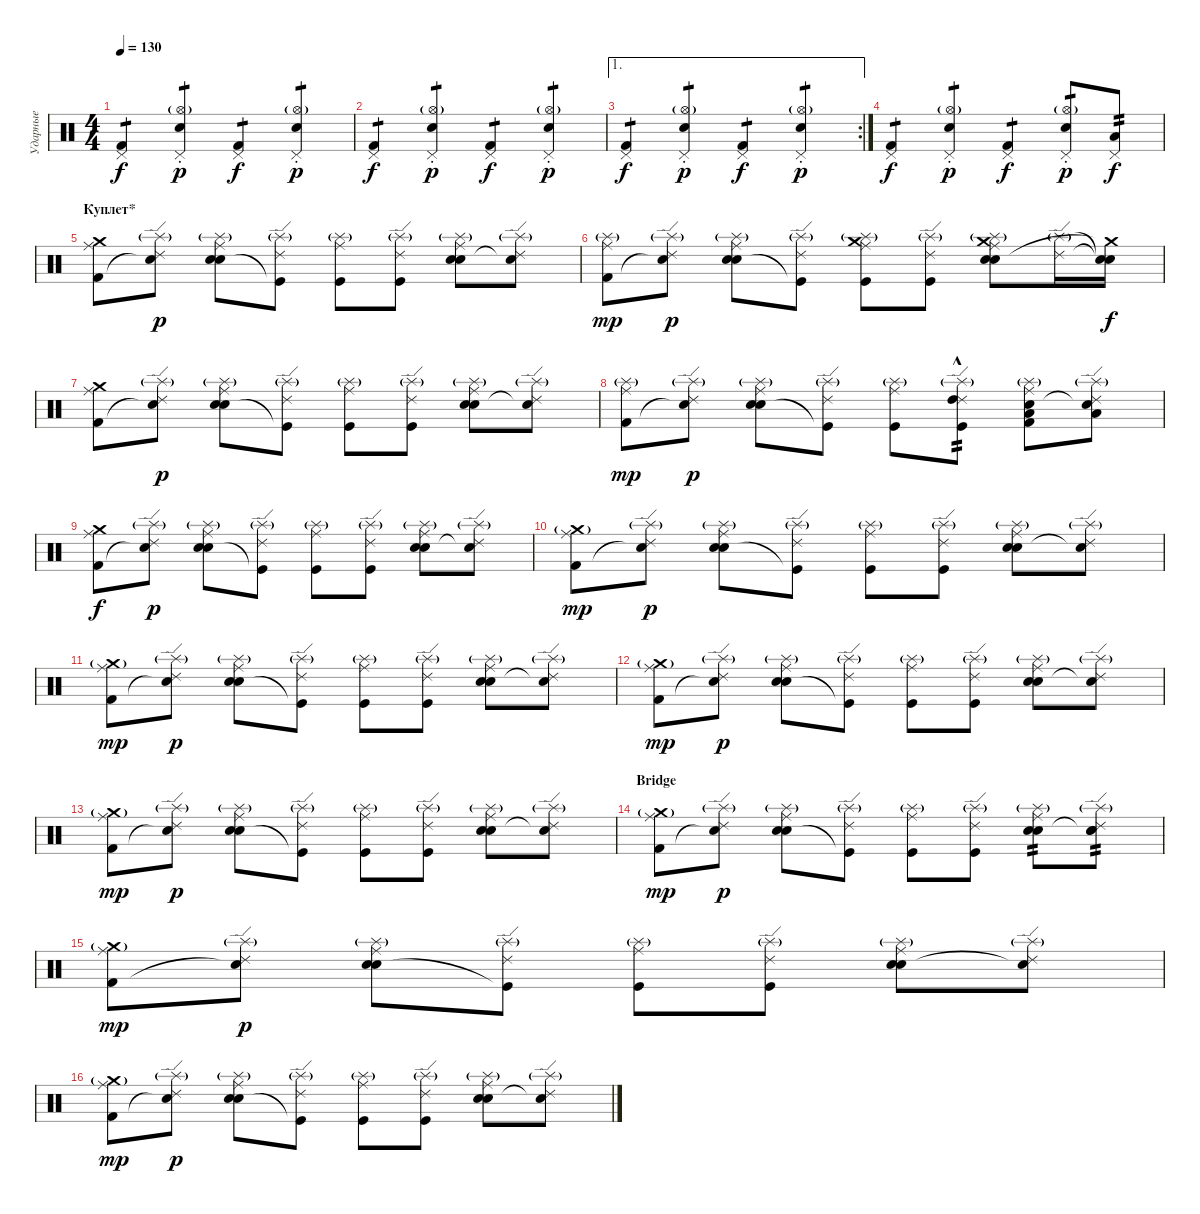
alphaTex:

\track ("Ударные" "Ударные") {instrument percussion}
\staff {score}
\articulation defaults
\ts (4 4)
\tempo 130
\clef neutral
\ks c
("Pedal Hi-Hat (hit)" "Kick (hit) 2").4{tp 1 dy f} ("Pedal Hi-Hat (hit)" "Hi-Hat (open)"{g st} "Snare (hit) 2").4{tp 1 dy p} ("Pedal Hi-Hat (hit)" "Kick (hit) 2").4{tp 1 dy f} ("Pedal Hi-Hat (hit)" "Hi-Hat (open)"{g st} "Snare (hit) 2").4{tp 1 dy p} |
("Pedal Hi-Hat (hit)" "Kick (hit) 2").4{tp 1 dy f} ("Pedal Hi-Hat (hit)" "Hi-Hat (open)"{g st} "Snare (hit) 2").4{tp 1 dy p} ("Pedal Hi-Hat (hit)" "Kick (hit) 2").4{tp 1 dy f} ("Pedal Hi-Hat (hit)" "Hi-Hat (open)"{g st} "Snare (hit) 2").4{tp 1 dy p} |
\ae 1
\rc 2
("Pedal Hi-Hat (hit)" "Kick (hit) 2").4{tp 1 dy f} ("Pedal Hi-Hat (hit)" "Hi-Hat (open)"{g st} "Snare (hit) 2").4{tp 1 dy p} ("Pedal Hi-Hat (hit)" "Kick (hit) 2").4{tp 1 dy f} ("Pedal Hi-Hat (hit)" "Hi-Hat (open)"{g st} "Snare (hit) 2").4{tp 1 dy p} |
("Pedal Hi-Hat (hit)" "Kick (hit) 2").4{tp 1 dy f} ("Pedal Hi-Hat (hit)" "Hi-Hat (open)"{g st} "Snare (hit) 2").4{tp 1 dy p} ("Pedal Hi-Hat (hit)" "Kick (hit) 2").4{tp 1 dy f} ("Pedal Hi-Hat (hit)" "Hi-Hat (open)"{g st} "Snare (hit) 2").8{tp 1 dy p} ("Pedal Hi-Hat (hit)" "Low Tom (hit)").8{tp 2 dy f} |
\section ("" "Куплет*")
("Crash medium (hit)" "Ride (middle)" "Kick (hit) 2").8 ("Splash (hit)"{g} "Ride (edge) 2" "Snare (hit)"{t}).8{dy p} ("Splash (hit)"{g} "Ride (middle)" "Snare (hit) 2" "Electric Snare (hit)").8 ("Splash (hit)"{g} "Ride (edge) 2" "Kick (hit)"{t}).8 ("Splash (hit)"{g} "Ride (middle)" "Kick (hit)").8 ("Splash (hit)"{g} "Ride (edge) 2" "Kick (hit)").8 ("Splash (hit)"{g} "Ride (middle)" "Snare (hit) 2" "Electric Snare (hit)").8 ("Splash (hit)"{g} "Ride (edge) 2" "Snare (hit)"{t}).8 |
("Splash (hit)"{g} "Ride (middle)" "Kick (hit) 2").8{dy mp} ("Splash (hit)"{g} "Ride (edge) 2" "Snare (hit)"{t}).8{dy p} ("Splash (hit)"{g} "Ride (middle)" "Snare (hit) 2" "Electric Snare (hit)").8 ("Splash (hit)"{g} "Ride (edge) 2" "Kick (hit)"{t}).8 ("Splash (hit)"{g} "Ride (middle)" "Kick (hit)" "Crash medium (hit)").8 ("Splash (hit)"{g} "Ride (edge) 2" "Kick (hit)").8 ("Splash (hit)"{g} "Ride (middle)" "Snare (hit) 2" "Crash medium (hit)" "Electric Snare (hit)").8 ("Splash (hit)"{g} "Ride (edge) 2").16 ("Snare (hit)"{t} "Snare (hit)"{t} "Crash medium (hit)"{t}).16{dy f} |
("Crash medium (hit)" "Ride (middle)" "Kick (hit) 2").8 ("Splash (hit)"{g} "Ride (edge) 2" "Snare (hit)"{t}).8{dy p} ("Splash (hit)"{g} "Ride (middle)" "Snare (hit) 2" "Electric Snare (hit)").8 ("Splash (hit)"{g} "Ride (edge) 2" "Kick (hit)"{t}).8 ("Splash (hit)"{g} "Ride (middle)" "Kick (hit)").8 ("Splash (hit)"{g} "Ride (edge) 2" "Kick (hit)").8 ("Splash (hit)"{g} "Ride (middle)" "Snare (hit) 2" "Electric Snare (hit)").8 ("Splash (hit)"{g} "Ride (edge) 2" "Snare (hit)"{t}).8 |
("Splash (hit)"{g} "Ride (middle)" "Kick (hit) 2").8{dy mp} ("Splash (hit)"{g} "Ride (edge) 2" "Snare (hit)"{t}).8{dy p} ("Splash (hit)"{g} "Ride (middle)" "Snare (hit) 2" "Electric Snare (hit)").8 ("Splash (hit)"{g} "Ride (edge) 2" "Kick (hit)"{t}).8 ("Splash (hit)"{g} "Ride (middle)" "Kick (hit)").8 ("Splash (hit)"{g} "Ride (edge) 2" "Kick (hit)" "High Tom (hit)"{hac}).8{tp 2} ("Splash (hit)"{g} "Ride (middle)" "Snare (hit) 2" "Low Tom (hit)" "Kick (hit) 2").8 ("Splash (hit)"{g} "Ride (edge) 2" "Snare (hit)"{t} "Low Tom (hit)").8 |
("Crash medium (hit)" "Ride (middle)" "Kick (hit) 2").8{dy f} ("Splash (hit)"{g} "Ride (edge) 2" "Snare (hit)"{t}).8{dy p} ("Splash (hit)"{g} "Ride (middle)" "Snare (hit) 2" "Electric Snare (hit)").8 ("Splash (hit)"{g} "Ride (edge) 2" "Kick (hit)"{t}).8 ("Splash (hit)"{g} "Ride (middle)" "Kick (hit)").8 ("Splash (hit)"{g} "Ride (edge) 2" "Kick (hit)").8 ("Splash (hit)"{g} "Ride (middle)" "Snare (hit) 2" "Electric Snare (hit)").8 ("Splash (hit)"{g} "Ride (edge) 2" "Snare (hit)"{t}).8 |
("Crash medium (hit)"{g} "Ride (middle)" "Kick (hit) 2").8{dy mp} ("Splash (hit)"{g} "Ride (edge) 2" "Snare (hit)"{t}).8{dy p} ("Splash (hit)"{g} "Ride (middle)" "Snare (hit) 2" "Electric Snare (hit)").8 ("Splash (hit)"{g} "Ride (edge) 2" "Kick (hit)"{t}).8 ("Splash (hit)"{g} "Ride (middle)" "Kick (hit)").8 ("Splash (hit)"{g} "Ride (edge) 2" "Kick (hit)").8 ("Splash (hit)"{g} "Ride (middle)" "Snare (hit) 2" "Electric Snare (hit)").8 ("Splash (hit)"{g} "Ride (edge) 2" "Snare (hit)"{t}).8 |
("Crash medium (hit)"{g} "Ride (middle)" "Kick (hit) 2").8{dy mp} ("Splash (hit)"{g} "Ride (edge) 2" "Snare (hit)"{t}).8{dy p} ("Splash (hit)"{g} "Ride (middle)" "Snare (hit) 2" "Electric Snare (hit)").8 ("Splash (hit)"{g} "Ride (edge) 2" "Kick (hit)"{t}).8 ("Splash (hit)"{g} "Ride (middle)" "Kick (hit)").8 ("Splash (hit)"{g} "Ride (edge) 2" "Kick (hit)").8 ("Splash (hit)"{g} "Ride (middle)" "Snare (hit) 2" "Electric Snare (hit)").8 ("Splash (hit)"{g} "Ride (edge) 2" "Snare (hit)"{t}).8 |
("Crash medium (hit)"{g} "Ride (middle)" "Kick (hit) 2").8{dy mp} ("Splash (hit)"{g} "Ride (edge) 2" "Snare (hit)"{t}).8{dy p} ("Splash (hit)"{g} "Ride (middle)" "Snare (hit) 2" "Electric Snare (hit)").8 ("Splash (hit)"{g} "Ride (edge) 2" "Kick (hit)"{t}).8 ("Splash (hit)"{g} "Ride (middle)" "Kick (hit)").8 ("Splash (hit)"{g} "Ride (edge) 2" "Kick (hit)").8 ("Splash (hit)"{g} "Ride (middle)" "Snare (hit) 2" "Electric Snare (hit)").8 ("Splash (hit)"{g} "Ride (edge) 2" "Snare (hit)"{t}).8 |
("Crash medium (hit)"{g} "Ride (middle)" "Kick (hit) 2").8{dy mp} ("Splash (hit)"{g} "Ride (edge) 2" "Snare (hit)"{t}).8{dy p} ("Splash (hit)"{g} "Ride (middle)" "Snare (hit) 2" "Electric Snare (hit)").8 ("Splash (hit)"{g} "Ride (edge) 2" "Kick (hit)"{t}).8 ("Splash (hit)"{g} "Ride (middle)" "Kick (hit)").8 ("Splash (hit)"{g} "Ride (edge) 2" "Kick (hit)").8 ("Splash (hit)"{g} "Ride (middle)" "Snare (hit) 2" "Electric Snare (hit)").8 ("Splash (hit)"{g} "Ride (edge) 2" "Snare (hit)"{t}).8 |
\section ("" "Bridge")
("Crash medium (hit)"{g} "Ride (middle)" "Kick (hit) 2").8{dy mp} ("Splash (hit)"{g} "Ride (edge) 2" "Snare (hit)"{t}).8{dy p} ("Splash (hit)"{g} "Ride (middle)" "Snare (hit) 2" "Electric Snare (hit)").8 ("Splash (hit)"{g} "Ride (edge) 2" "Kick (hit)"{t}).8 ("Splash (hit)"{g} "Ride (middle)" "Kick (hit)").8 ("Splash (hit)"{g} "Ride (edge) 2" "Kick (hit)").8 ("Splash (hit)"{g} "Ride (middle)" "Snare (hit) 2" "Electric Snare (hit)").8{tp 2} ("Splash (hit)"{g} "Ride (edge) 2" "Snare (hit)"{t} "Snare (hit) 2").8{tp 2} |
("Crash medium (hit)"{g} "Ride (middle)" "Kick (hit) 2").8{dy mp} ("Splash (hit)"{g} "Ride (edge) 2" "Snare (hit)"{t}).8{dy p} ("Splash (hit)"{g} "Ride (middle)" "Snare (hit) 2" "Electric Snare (hit)").8 ("Splash (hit)"{g} "Ride (edge) 2" "Kick (hit)"{t}).8 ("Splash (hit)"{g} "Ride (middle)" "Kick (hit)").8 ("Splash (hit)"{g} "Ride (edge) 2" "Kick (hit)").8 ("Splash (hit)"{g} "Ride (middle)" "Snare (hit) 2" "Electric Snare (hit)").8 ("Splash (hit)"{g} "Ride (edge) 2" "Snare (hit)"{t}).8 |
("Crash medium (hit)"{g} "Ride (middle)" "Kick (hit) 2").8{dy mp} ("Splash (hit)"{g} "Ride (edge) 2" "Snare (hit)"{t}).8{dy p} ("Splash (hit)"{g} "Ride (middle)" "Snare (hit) 2" "Electric Snare (hit)").8 ("Splash (hit)"{g} "Ride (edge) 2" "Kick (hit)"{t}).8 ("Splash (hit)"{g} "Ride (middle)" "Kick (hit)").8 ("Splash (hit)"{g} "Ride (edge) 2" "Kick (hit)").8 ("Splash (hit)"{g} "Ride (middle)" "Snare (hit) 2" "Electric Snare (hit)").8 ("Splash (hit)"{g} "Ride (edge) 2" "Snare (hit)"{t}).8
